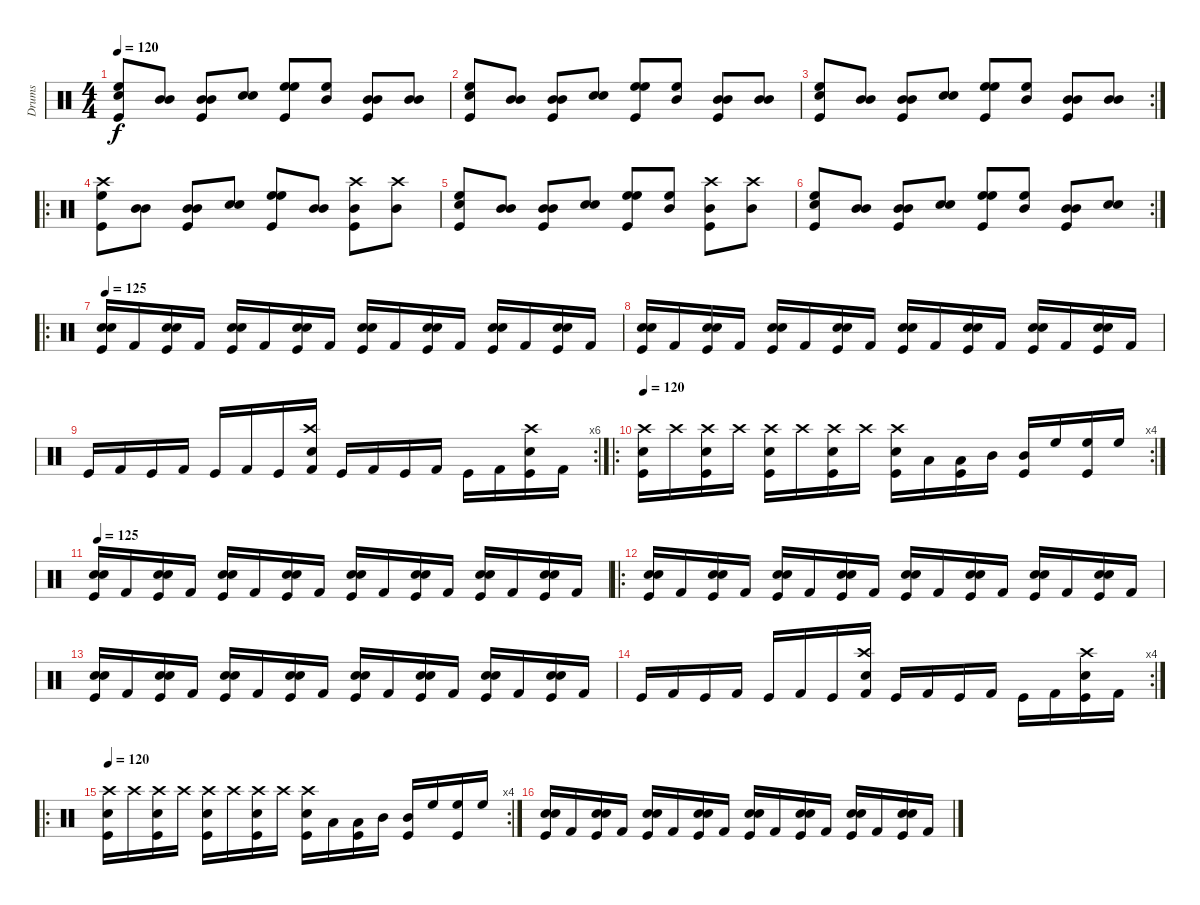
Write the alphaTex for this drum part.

\track ("Drums" "Drums") {instrument percussion}
\staff {score}
\articulation defaults
\ts (4 4)
\tempo 120
\clef neutral
\ks c
("Kick (hit)" "High Floor Tom (hit)" "Snare (hit) 2").8{dy f} ("Mid Tom (hit)" "Mid Tom (hit)").8 ("Kick (hit)" "Mid Tom (hit)" "Mid Tom (hit)").8 ("Snare (hit) 2" "Snare (hit) 2").8 ("Kick (hit)" "High Floor Tom (hit)" "High Floor Tom (hit)").8 ("Mid Tom (hit)" "High Floor Tom (hit)").8 ("Kick (hit)" "Mid Tom (hit)" "Mid Tom (hit)").8 ("Mid Tom (hit)" "Mid Tom (hit)").8 |
("Kick (hit)" "High Floor Tom (hit)" "Snare (hit) 2").8 ("Mid Tom (hit)" "Mid Tom (hit)").8 ("Kick (hit)" "Mid Tom (hit)" "Mid Tom (hit)").8 ("Snare (hit) 2" "Snare (hit) 2").8 ("Kick (hit)" "High Floor Tom (hit)" "High Floor Tom (hit)").8 ("Mid Tom (hit)" "High Floor Tom (hit)").8 ("Kick (hit)" "Mid Tom (hit)" "Mid Tom (hit)").8 ("Mid Tom (hit)" "Mid Tom (hit)").8 |
\rc 2
("Kick (hit)" "High Floor Tom (hit)" "Snare (hit) 2").8 ("Mid Tom (hit)" "Mid Tom (hit)").8 ("Kick (hit)" "Mid Tom (hit)" "Mid Tom (hit)").8 ("Snare (hit) 2" "Snare (hit) 2").8 ("Kick (hit)" "High Floor Tom (hit)" "High Floor Tom (hit)").8 ("Mid Tom (hit)" "High Floor Tom (hit)").8 ("Kick (hit)" "Mid Tom (hit)" "Mid Tom (hit)").8 ("Mid Tom (hit)" "Mid Tom (hit)").8 |
\ro
("Kick (hit)" "High Floor Tom (hit)" "Crash high (hit)").8 ("Mid Tom (hit)" "Mid Tom (hit)").8 ("Kick (hit)" "Mid Tom (hit)" "Mid Tom (hit)").8 ("Snare (hit) 2" "Snare (hit) 2").8 ("Kick (hit)" "High Floor Tom (hit)" "High Floor Tom (hit)").8 ("Mid Tom (hit)" "Mid Tom (hit)").8 ("Kick (hit)" "Mid Tom (hit)" "Crash high (hit)").8 ("Mid Tom (hit)" "Crash high (hit)").8 |
("Kick (hit)" "High Floor Tom (hit)" "Snare (hit) 2").8 ("Mid Tom (hit)" "Mid Tom (hit)").8 ("Kick (hit)" "Mid Tom (hit)" "Mid Tom (hit)").8 ("Snare (hit) 2" "Snare (hit) 2").8 ("Kick (hit)" "High Floor Tom (hit)" "High Floor Tom (hit)").8 ("Mid Tom (hit)" "High Floor Tom (hit)").8 ("Kick (hit)" "Mid Tom (hit)" "Crash high (hit)").8 ("Mid Tom (hit)" "Crash high (hit)").8 |
\rc 2
("Kick (hit)" "High Floor Tom (hit)" "Snare (hit) 2").8 ("Mid Tom (hit)" "Mid Tom (hit)").8 ("Kick (hit)" "Mid Tom (hit)" "Mid Tom (hit)").8 ("Snare (hit) 2" "Snare (hit) 2").8 ("Kick (hit)" "High Floor Tom (hit)" "High Floor Tom (hit)").8 ("Mid Tom (hit)" "High Floor Tom (hit)").8 ("Kick (hit)" "Mid Tom (hit)" "Mid Tom (hit)").8 ("Snare (hit) 2" "Snare (hit) 2").8 |
\ro
\tempo 125
("Kick (hit)" "Snare (hit) 2" "Snare (hit) 2").16 "Kick (hit) 2".16 ("Kick (hit)" "Snare (hit) 2" "Snare (hit) 2").16 "Kick (hit) 2".16 ("Kick (hit)" "Snare (hit) 2" "Snare (hit) 2").16 "Kick (hit) 2".16 ("Kick (hit)" "Snare (hit) 2" "Snare (hit) 2").16 "Kick (hit) 2".16 ("Kick (hit)" "Snare (hit) 2" "Snare (hit) 2").16 "Kick (hit) 2".16 ("Kick (hit)" "Snare (hit) 2" "Snare (hit) 2").16 "Kick (hit) 2".16 ("Kick (hit)" "Snare (hit) 2" "Snare (hit) 2").16 "Kick (hit) 2".16 ("Kick (hit)" "Snare (hit) 2" "Snare (hit) 2").16 "Kick (hit) 2".16 |
("Kick (hit)" "Snare (hit) 2" "Snare (hit) 2").16 "Kick (hit) 2".16 ("Kick (hit)" "Snare (hit) 2" "Snare (hit) 2").16 "Kick (hit) 2".16 ("Kick (hit)" "Snare (hit) 2" "Snare (hit) 2").16 "Kick (hit) 2".16 ("Kick (hit)" "Snare (hit) 2" "Snare (hit) 2").16 "Kick (hit) 2".16 ("Kick (hit)" "Snare (hit) 2" "Snare (hit) 2").16 "Kick (hit) 2".16 ("Kick (hit)" "Snare (hit) 2" "Snare (hit) 2").16 "Kick (hit) 2".16 ("Kick (hit)" "Snare (hit) 2" "Snare (hit) 2").16 "Kick (hit) 2".16 ("Kick (hit)" "Snare (hit) 2" "Snare (hit) 2").16 "Kick (hit) 2".16 |
\rc 6 "Kick (hit)".16 "Kick (hit) 2".16 "Kick (hit)".16 "Kick (hit) 2".16 "Kick (hit)".16 "Kick (hit) 2".16 "Kick (hit)".16
("Kick (hit) 2" "Snare (hit) 2" "Crash high (hit)").16 "Kick (hit)".16 "Kick (hit) 2".16 "Kick (hit)".16 "Kick (hit) 2".16 "Kick (hit)".16 "Kick (hit) 2".16 ("Kick (hit)" "Snare (hit) 2" "Crash high (hit)").16 "Kick (hit) 2".16 |
\ro
\rc 4
\tempo 120
("Kick (hit)" "Snare (hit) 2" "Crash high (hit)").16 "Crash high (hit)".16 ("Kick (hit)" "Snare (hit) 2" "Crash high (hit)").16 "Crash high (hit)".16 ("Kick (hit)" "Snare (hit) 2" "Crash high (hit)").16 "Crash high (hit)".16 ("Kick (hit)" "Snare (hit) 2" "Crash high (hit)").16 "Crash high (hit)".16 ("Kick (hit)" "Snare (hit) 2" "Crash high (hit)").16 "Low Tom (hit)".16 ("Kick (hit)" "Low Tom (hit)").16 "Mid Tom (hit)".16 ("Kick (hit)" "Mid Tom (hit)").16 "High Floor Tom (hit)".16 ("Kick (hit)" "High Floor Tom (hit)").16 "High Floor Tom (hit)".16 |
\tempo 125
("Kick (hit)" "Snare (hit) 2" "Snare (hit) 2").16 "Kick (hit) 2".16 ("Kick (hit)" "Snare (hit) 2" "Snare (hit) 2").16 "Kick (hit) 2".16 ("Kick (hit)" "Snare (hit) 2" "Snare (hit) 2").16 "Kick (hit) 2".16 ("Kick (hit)" "Snare (hit) 2" "Snare (hit) 2").16 "Kick (hit) 2".16 ("Kick (hit)" "Snare (hit) 2" "Snare (hit) 2").16 "Kick (hit) 2".16 ("Kick (hit)" "Snare (hit) 2" "Snare (hit) 2").16 "Kick (hit) 2".16 ("Kick (hit)" "Snare (hit) 2" "Snare (hit) 2").16 "Kick (hit) 2".16 ("Kick (hit)" "Snare (hit) 2" "Snare (hit) 2").16 "Kick (hit) 2".16 |
\ro
("Kick (hit)" "Snare (hit) 2" "Snare (hit) 2").16 "Kick (hit) 2".16 ("Kick (hit)" "Snare (hit) 2" "Snare (hit) 2").16 "Kick (hit) 2".16 ("Kick (hit)" "Snare (hit) 2" "Snare (hit) 2").16 "Kick (hit) 2".16 ("Kick (hit)" "Snare (hit) 2" "Snare (hit) 2").16 "Kick (hit) 2".16 ("Kick (hit)" "Snare (hit) 2" "Snare (hit) 2").16 "Kick (hit) 2".16 ("Kick (hit)" "Snare (hit) 2" "Snare (hit) 2").16 "Kick (hit) 2".16 ("Kick (hit)" "Snare (hit) 2" "Snare (hit) 2").16 "Kick (hit) 2".16 ("Kick (hit)" "Snare (hit) 2" "Snare (hit) 2").16 "Kick (hit) 2".16 |
("Kick (hit)" "Snare (hit) 2" "Snare (hit) 2").16 "Kick (hit) 2".16 ("Kick (hit)" "Snare (hit) 2" "Snare (hit) 2").16 "Kick (hit) 2".16 ("Kick (hit)" "Snare (hit) 2" "Snare (hit) 2").16 "Kick (hit) 2".16 ("Kick (hit)" "Snare (hit) 2" "Snare (hit) 2").16 "Kick (hit) 2".16 ("Kick (hit)" "Snare (hit) 2" "Snare (hit) 2").16 "Kick (hit) 2".16 ("Kick (hit)" "Snare (hit) 2" "Snare (hit) 2").16 "Kick (hit) 2".16 ("Kick (hit)" "Snare (hit) 2" "Snare (hit) 2").16 "Kick (hit) 2".16 ("Kick (hit)" "Snare (hit) 2" "Snare (hit) 2").16 "Kick (hit) 2".16 |
\rc 4 "Kick (hit)".16 "Kick (hit) 2".16 "Kick (hit)".16 "Kick (hit) 2".16 "Kick (hit)".16 "Kick (hit) 2".16 "Kick (hit)".16
("Kick (hit) 2" "Snare (hit) 2" "Crash high (hit)").16 "Kick (hit)".16 "Kick (hit) 2".16 "Kick (hit)".16 "Kick (hit) 2".16 "Kick (hit)".16 "Kick (hit) 2".16 ("Kick (hit)" "Snare (hit) 2" "Crash high (hit)").16 "Kick (hit) 2".16 |
\ro
\rc 4
\tempo 120
("Kick (hit)" "Snare (hit) 2" "Crash high (hit)").16 "Crash high (hit)".16 ("Kick (hit)" "Snare (hit) 2" "Crash high (hit)").16 "Crash high (hit)".16 ("Kick (hit)" "Snare (hit) 2" "Crash high (hit)").16 "Crash high (hit)".16 ("Kick (hit)" "Snare (hit) 2" "Crash high (hit)").16 "Crash high (hit)".16 ("Kick (hit)" "Snare (hit) 2" "Crash high (hit)").16 "Low Tom (hit)".16 ("Kick (hit)" "Low Tom (hit)").16 "Mid Tom (hit)".16 ("Kick (hit)" "Mid Tom (hit)").16 "High Floor Tom (hit)".16 ("Kick (hit)" "High Floor Tom (hit)").16 "High Floor Tom (hit)".16 |
("Kick (hit)" "Snare (hit) 2" "Snare (hit) 2").16 "Kick (hit) 2".16 ("Kick (hit)" "Snare (hit) 2" "Snare (hit) 2").16 "Kick (hit) 2".16 ("Kick (hit)" "Snare (hit) 2" "Snare (hit) 2").16 "Kick (hit) 2".16 ("Kick (hit)" "Snare (hit) 2" "Snare (hit) 2").16 "Kick (hit) 2".16 ("Kick (hit)" "Snare (hit) 2" "Snare (hit) 2").16 "Kick (hit) 2".16 ("Kick (hit)" "Snare (hit) 2" "Snare (hit) 2").16 "Kick (hit) 2".16 ("Kick (hit)" "Snare (hit) 2" "Snare (hit) 2").16 "Kick (hit) 2".16 ("Kick (hit)" "Snare (hit) 2" "Snare (hit) 2").16 "Kick (hit) 2".16
